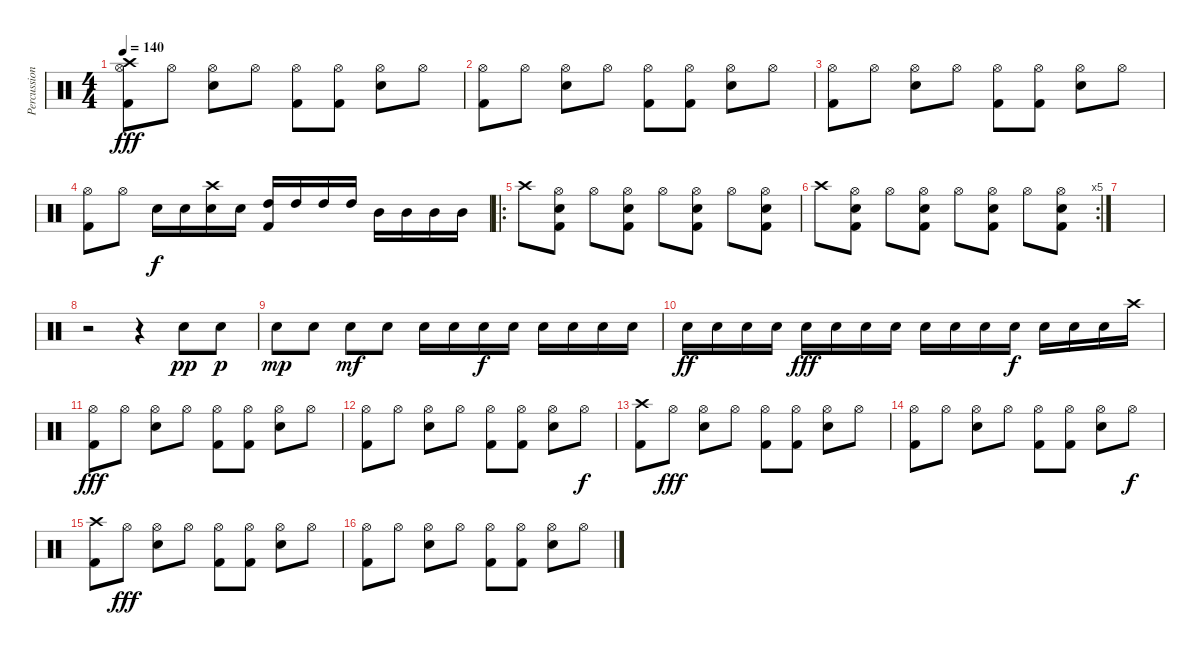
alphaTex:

\track ("Percussion" "Percussion") {instrument percussion}
\staff {score}
\articulation defaults
\ts (4 4)
\tempo 140
\clef neutral
\ks c
("Crash high (hit)" "Hi-Hat (open)" "Kick (hit) 2").8{dy fff} "Hi-Hat (open)".8 ("Hi-Hat (open)" "Snare (hit) 2").8 "Hi-Hat (open)".8 ("Hi-Hat (open)" "Kick (hit) 2").8 ("Hi-Hat (open)" "Kick (hit) 2").8 ("Hi-Hat (open)" "Snare (hit) 2").8 "Hi-Hat (open)".8 |
("Hi-Hat (open)" "Kick (hit) 2").8 "Hi-Hat (open)".8 ("Hi-Hat (open)" "Snare (hit) 2").8 "Hi-Hat (open)".8 ("Hi-Hat (open)" "Kick (hit) 2").8 ("Hi-Hat (open)" "Kick (hit) 2").8 ("Hi-Hat (open)" "Snare (hit) 2").8 "Hi-Hat (open)".8 |
("Hi-Hat (open)" "Kick (hit) 2").8 "Hi-Hat (open)".8 ("Hi-Hat (open)" "Snare (hit) 2").8 "Hi-Hat (open)".8 ("Hi-Hat (open)" "Kick (hit) 2").8 ("Hi-Hat (open)" "Kick (hit) 2").8 ("Hi-Hat (open)" "Snare (hit) 2").8 "Hi-Hat (open)".8 |
("Hi-Hat (open)" "Kick (hit) 2").8 "Hi-Hat (open)".8 "Snare (hit) 2".16{dy f} "Snare (hit) 2".16 ("Crash high (hit)" "Snare (hit) 2").16 "Snare (hit) 2".16 ("High Tom (hit)" "Kick (hit) 2").16 "High Tom (hit)".16 "High Tom (hit)".16 "High Tom (hit)".16 "Mid Tom (hit)".16 "Mid Tom (hit)".16 "Mid Tom (hit)".16 "Mid Tom (hit)".16 |
\ro "Crash high (hit)".8
("Hi-Hat (open)" "Snare (hit) 2" "Kick (hit) 2").8 "Hi-Hat (open)".8 ("Hi-Hat (open)" "Snare (hit) 2" "Kick (hit) 2").8 "Hi-Hat (open)".8 ("Hi-Hat (open)" "Snare (hit) 2" "Kick (hit) 2").8 "Hi-Hat (open)".8 ("Hi-Hat (open)" "Snare (hit) 2" "Kick (hit) 2").8 |
\rc 5 "Crash high (hit)".8
("Hi-Hat (open)" "Snare (hit) 2" "Kick (hit) 2").8 "Hi-Hat (open)".8 ("Hi-Hat (open)" "Snare (hit) 2" "Kick (hit) 2").8 "Hi-Hat (open)".8 ("Hi-Hat (open)" "Snare (hit) 2" "Kick (hit) 2").8 "Hi-Hat (open)".8 ("Hi-Hat (open)" "Snare (hit) 2" "Kick (hit) 2").8 |
|
r.2 r.4 "Snare (hit) 2".8{dy pp} "Snare (hit) 2".8{dy p} |
"Snare (hit) 2".8{dy mp} "Snare (hit) 2".8 "Snare (hit) 2".8{dy mf} "Snare (hit) 2".8 "Snare (hit) 2".16 "Snare (hit) 2".16 "Snare (hit) 2".16{dy f} "Snare (hit) 2".16 "Snare (hit) 2".16 "Snare (hit) 2".16 "Snare (hit) 2".16 "Snare (hit) 2".16 |
"Snare (hit) 2".16{dy ff} "Snare (hit) 2".16 "Snare (hit) 2".16 "Snare (hit) 2".16 "Snare (hit) 2".16{dy fff} "Snare (hit) 2".16 "Snare (hit) 2".16 "Snare (hit) 2".16 "Snare (hit) 2".16 "Snare (hit) 2".16 "Snare (hit) 2".16 "Snare (hit) 2".16{dy f} "Snare (hit) 2".16 "Snare (hit) 2".16 "Snare (hit) 2".16 "Crash high (hit)".16 |
("Hi-Hat (open)" "Kick (hit) 2").8{dy fff} "Hi-Hat (open)".8 ("Hi-Hat (open)" "Snare (hit) 2").8 "Hi-Hat (open)".8 ("Hi-Hat (open)" "Kick (hit) 2").8 ("Hi-Hat (open)" "Kick (hit) 2").8 ("Hi-Hat (open)" "Snare (hit) 2").8 "Hi-Hat (open)".8 |
("Hi-Hat (open)" "Kick (hit) 2").8 "Hi-Hat (open)".8 ("Hi-Hat (open)" "Snare (hit) 2").8 "Hi-Hat (open)".8 ("Hi-Hat (open)" "Kick (hit) 2").8 ("Hi-Hat (open)" "Kick (hit) 2").8 ("Hi-Hat (open)" "Snare (hit) 2").8 "Hi-Hat (open)".8{dy f} |
("Crash high (hit)" "Kick (hit) 2").8 "Hi-Hat (open)".8{dy fff} ("Hi-Hat (open)" "Snare (hit) 2").8 "Hi-Hat (open)".8 ("Hi-Hat (open)" "Kick (hit) 2").8 ("Hi-Hat (open)" "Kick (hit) 2").8 ("Hi-Hat (open)" "Snare (hit) 2").8 "Hi-Hat (open)".8 |
("Hi-Hat (open)" "Kick (hit) 2").8 "Hi-Hat (open)".8 ("Hi-Hat (open)" "Snare (hit) 2").8 "Hi-Hat (open)".8 ("Hi-Hat (open)" "Kick (hit) 2").8 ("Hi-Hat (open)" "Kick (hit) 2").8 ("Hi-Hat (open)" "Snare (hit) 2").8 "Hi-Hat (open)".8{dy f} |
("Crash high (hit)" "Kick (hit) 2").8 "Hi-Hat (open)".8{dy fff} ("Hi-Hat (open)" "Snare (hit) 2").8 "Hi-Hat (open)".8 ("Hi-Hat (open)" "Kick (hit) 2").8 ("Hi-Hat (open)" "Kick (hit) 2").8 ("Hi-Hat (open)" "Snare (hit) 2").8 "Hi-Hat (open)".8 |
("Hi-Hat (open)" "Kick (hit) 2").8 "Hi-Hat (open)".8 ("Hi-Hat (open)" "Snare (hit) 2").8 "Hi-Hat (open)".8 ("Hi-Hat (open)" "Kick (hit) 2").8 ("Hi-Hat (open)" "Kick (hit) 2").8 ("Hi-Hat (open)" "Snare (hit) 2").8 "Hi-Hat (open)".8
